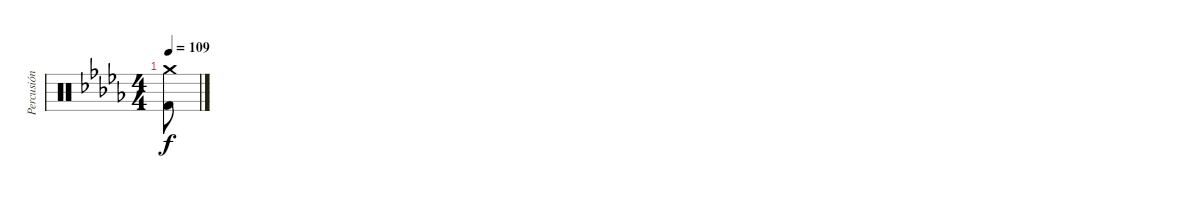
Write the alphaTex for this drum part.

\track ("Percusión" "Percusión") {instrument percussion}
\staff {score}
\articulation defaults
\ts (4 4)
\tempo 109
\clef neutral
\ks bbminor
("Kick (hit) 2" "Crash medium (hit)").8{dy f}
